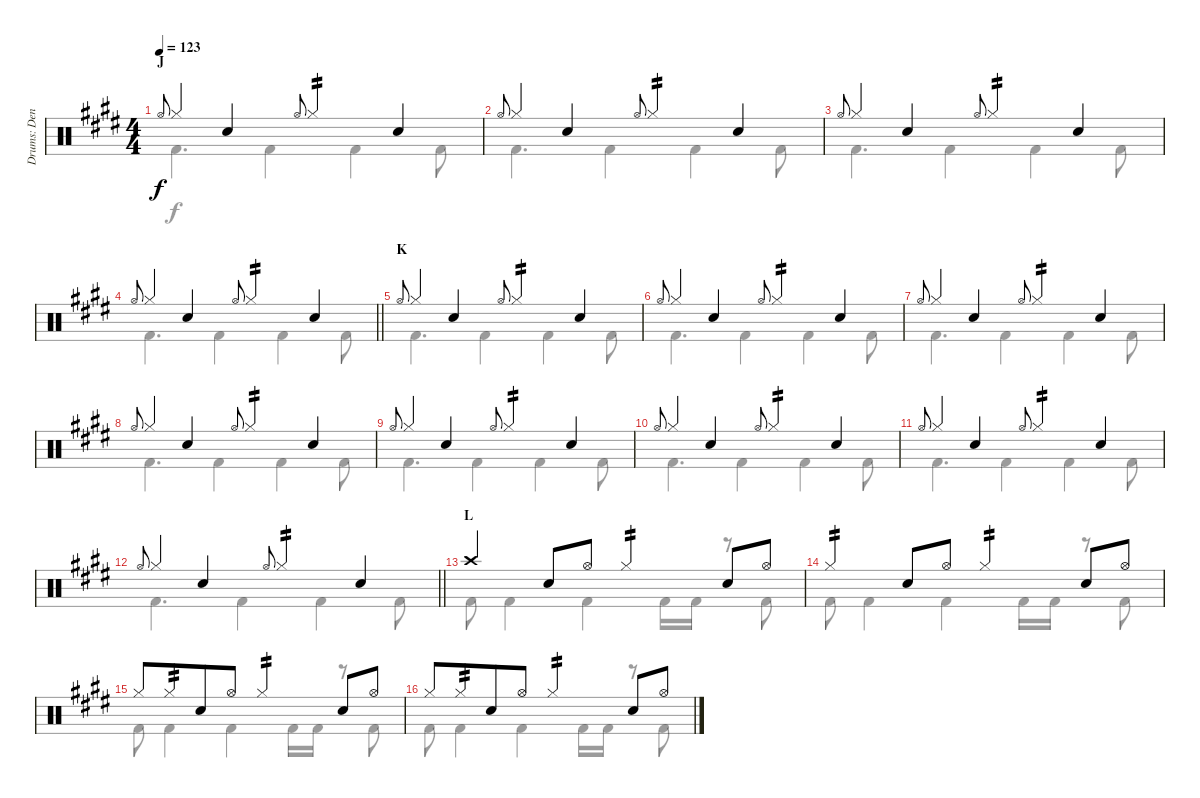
\track ("Drums: Denny" "Drums: Den") {instrument percussion}
\staff {score}
\articulation defaults
\voice
\ts (4 4)
\section ("" "J")
\tempo 123
\clef neutral
\ks e "Hi-Hat (open)".8{gr onbeat dy f} "Hi-Hat (closed)".4 "Snare (hit) 2".4 "Hi-Hat (open)".8{gr onbeat} "Hi-Hat (closed)".4{tp 2} "Snare (hit) 2".4
|
"Hi-Hat (open)".8{gr onbeat} "Hi-Hat (closed)".4 "Snare (hit) 2".4 "Hi-Hat (open)".8{gr onbeat} "Hi-Hat (closed)".4{tp 2} "Snare (hit) 2".4 |
"Hi-Hat (open)".8{gr onbeat} "Hi-Hat (closed)".4 "Snare (hit) 2".4 "Hi-Hat (open)".8{gr onbeat} "Hi-Hat (closed)".4{tp 2} "Snare (hit) 2".4 |
\barLineRight lightlight "Hi-Hat (open)".8{gr onbeat} "Hi-Hat (closed)".4 "Snare (hit) 2".4 "Hi-Hat (open)".8{gr onbeat} "Hi-Hat (closed)".4{tp 2} "Snare (hit) 2".4
|
\section ("" "K")
"Hi-Hat (open)".8{gr onbeat} "Hi-Hat (closed)".4 "Snare (hit) 2".4 "Hi-Hat (open)".8{gr onbeat} "Hi-Hat (closed)".4{tp 2} "Snare (hit) 2".4 |
"Hi-Hat (open)".8{gr onbeat} "Hi-Hat (closed)".4 "Snare (hit) 2".4 "Hi-Hat (open)".8{gr onbeat} "Hi-Hat (closed)".4{tp 2} "Snare (hit) 2".4 |
"Hi-Hat (open)".8{gr onbeat} "Hi-Hat (closed)".4 "Snare (hit) 2".4 "Hi-Hat (open)".8{gr onbeat} "Hi-Hat (closed)".4{tp 2} "Snare (hit) 2".4 |
"Hi-Hat (open)".8{gr onbeat} "Hi-Hat (closed)".4 "Snare (hit) 2".4 "Hi-Hat (open)".8{gr onbeat} "Hi-Hat (closed)".4{tp 2} "Snare (hit) 2".4 |
"Hi-Hat (open)".8{gr onbeat} "Hi-Hat (closed)".4 "Snare (hit) 2".4 "Hi-Hat (open)".8{gr onbeat} "Hi-Hat (closed)".4{tp 2} "Snare (hit) 2".4 |
"Hi-Hat (open)".8{gr onbeat} "Hi-Hat (closed)".4 "Snare (hit) 2".4 "Hi-Hat (open)".8{gr onbeat} "Hi-Hat (closed)".4{tp 2} "Snare (hit) 2".4 |
"Hi-Hat (open)".8{gr onbeat} "Hi-Hat (closed)".4 "Snare (hit) 2".4 "Hi-Hat (open)".8{gr onbeat} "Hi-Hat (closed)".4{tp 2} "Snare (hit) 2".4 |
\barLineRight lightlight "Hi-Hat (open)".8{gr onbeat} "Hi-Hat (closed)".4 "Snare (hit) 2".4 "Hi-Hat (open)".8{gr onbeat} "Hi-Hat (closed)".4{tp 2} "Snare (hit) 2".4
|
\section ("" "L")
"Crash high (hit)".4 "Snare (hit) 2".8 "Hi-Hat (open)".8 "Hi-Hat (closed)".4{tp 2} "Snare (hit) 2".8 "Hi-Hat (open)".8 |
"Hi-Hat (closed)".4{tp 2} "Snare (hit) 2".8 "Hi-Hat (open)".8 "Hi-Hat (closed)".4{tp 2} "Snare (hit) 2".8 "Hi-Hat (open)".8 |
"Hi-Hat (closed)".8 "Hi-Hat (closed)".8{tp 2 beam merge} "Snare (hit) 2".8 "Hi-Hat (open)".8 "Hi-Hat (closed)".4{tp 2} "Snare (hit) 2".8 "Hi-Hat (open)".8 |
"Hi-Hat (closed)".8 "Hi-Hat (closed)".8{tp 2 beam merge} "Snare (hit) 2".8 "Hi-Hat (open)".8 "Hi-Hat (closed)".4{tp 2} "Snare (hit) 2".8 "Hi-Hat (open)".8
\voice
\clef neutral
\ottava regular
\simile none
\ks e "Kick (hit) 2".4{d dy f} "Kick (hit) 2".4 "Kick (hit) 2".4 "Kick (hit) 2".8
|
"Kick (hit) 2".4{d} "Kick (hit) 2".4 "Kick (hit) 2".4 "Kick (hit) 2".8 |
"Kick (hit) 2".4{d} "Kick (hit) 2".4 "Kick (hit) 2".4 "Kick (hit) 2".8 |
\barLineRight lightlight "Kick (hit) 2".4{d} "Kick (hit) 2".4 "Kick (hit) 2".4 "Kick (hit) 2".8
|
"Kick (hit) 2".4{d} "Kick (hit) 2".4 "Kick (hit) 2".4 "Kick (hit) 2".8 |
"Kick (hit) 2".4{d} "Kick (hit) 2".4 "Kick (hit) 2".4 "Kick (hit) 2".8 |
"Kick (hit) 2".4{d} "Kick (hit) 2".4 "Kick (hit) 2".4 "Kick (hit) 2".8 |
"Kick (hit) 2".4{d} "Kick (hit) 2".4 "Kick (hit) 2".4 "Kick (hit) 2".8 |
"Kick (hit) 2".4{d} "Kick (hit) 2".4 "Kick (hit) 2".4 "Kick (hit) 2".8 |
"Kick (hit) 2".4{d} "Kick (hit) 2".4 "Kick (hit) 2".4 "Kick (hit) 2".8 |
"Kick (hit) 2".4{d} "Kick (hit) 2".4 "Kick (hit) 2".4 "Kick (hit) 2".8 |
\barLineRight lightlight "Kick (hit) 2".4{d} "Kick (hit) 2".4 "Kick (hit) 2".4 "Kick (hit) 2".8
|
"Kick (hit) 2".8 "Kick (hit) 2".4 "Kick (hit) 2".4 "Kick (hit) 2".16 "Kick (hit) 2".16 r.8 "Kick (hit) 2".8 |
"Kick (hit) 2".8 "Kick (hit) 2".4 "Kick (hit) 2".4 "Kick (hit) 2".16 "Kick (hit) 2".16 r.8 "Kick (hit) 2".8 |
"Kick (hit) 2".8 "Kick (hit) 2".4 "Kick (hit) 2".4 "Kick (hit) 2".16 "Kick (hit) 2".16 r.8 "Kick (hit) 2".8 |
"Kick (hit) 2".8 "Kick (hit) 2".4 "Kick (hit) 2".4 "Kick (hit) 2".16 "Kick (hit) 2".16 r.8 "Kick (hit) 2".8
